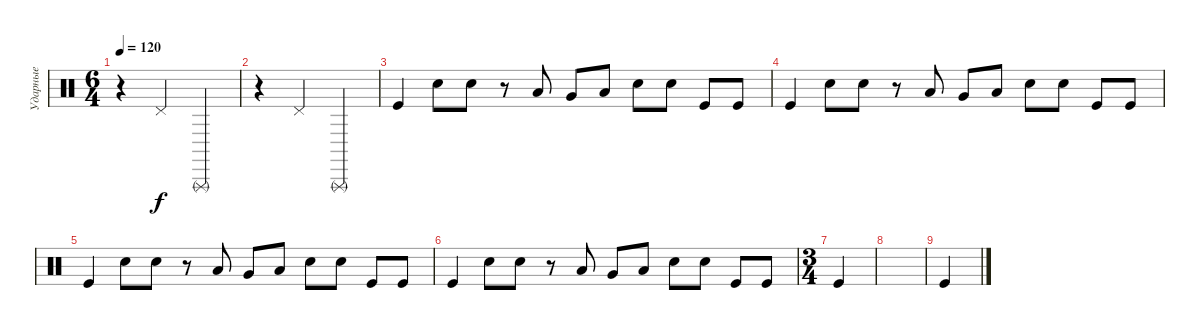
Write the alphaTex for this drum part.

\track ("Ударные" "Ударные") {instrument percussion}
\staff {score}
\articulation defaults
\ts (6 4)
\tempo 120
\clef neutral
\ks c
r.4{dy f} "Pedal Hi-Hat (hit)".4 "Triangle (rnute)".4 |
r.4 "Pedal Hi-Hat (hit)".4 "Triangle (rnute)".4 |
"Kick (hit)".4 "Electric Snare (hit)".8 "Electric Snare (hit)".8 r.8 "Low Tom (hit)".8 "Very Low Tom (hit)".8 "Low Floor Tom (hit)".8 "Electric Snare (hit)".8 "Electric Snare (hit)".8 "Kick (hit)".8 "Kick (hit)".8 |
"Kick (hit)".4 "Electric Snare (hit)".8 "Electric Snare (hit)".8 r.8 "Low Tom (hit)".8 "Very Low Tom (hit)".8 "Low Floor Tom (hit)".8 "Electric Snare (hit)".8 "Electric Snare (hit)".8 "Kick (hit)".8 "Kick (hit)".8 |
"Kick (hit)".4 "Electric Snare (hit)".8 "Electric Snare (hit)".8 r.8 "Low Tom (hit)".8 "Very Low Tom (hit)".8 "Low Floor Tom (hit)".8 "Electric Snare (hit)".8 "Electric Snare (hit)".8 "Kick (hit)".8 "Kick (hit)".8 |
"Kick (hit)".4 "Electric Snare (hit)".8 "Electric Snare (hit)".8 r.8 "Low Tom (hit)".8 "Very Low Tom (hit)".8 "Low Floor Tom (hit)".8 "Electric Snare (hit)".8 "Electric Snare (hit)".8 "Kick (hit)".8 "Kick (hit)".8 |
\ts (3 4)
"Kick (hit)".4 |
|
"Kick (hit)".4
